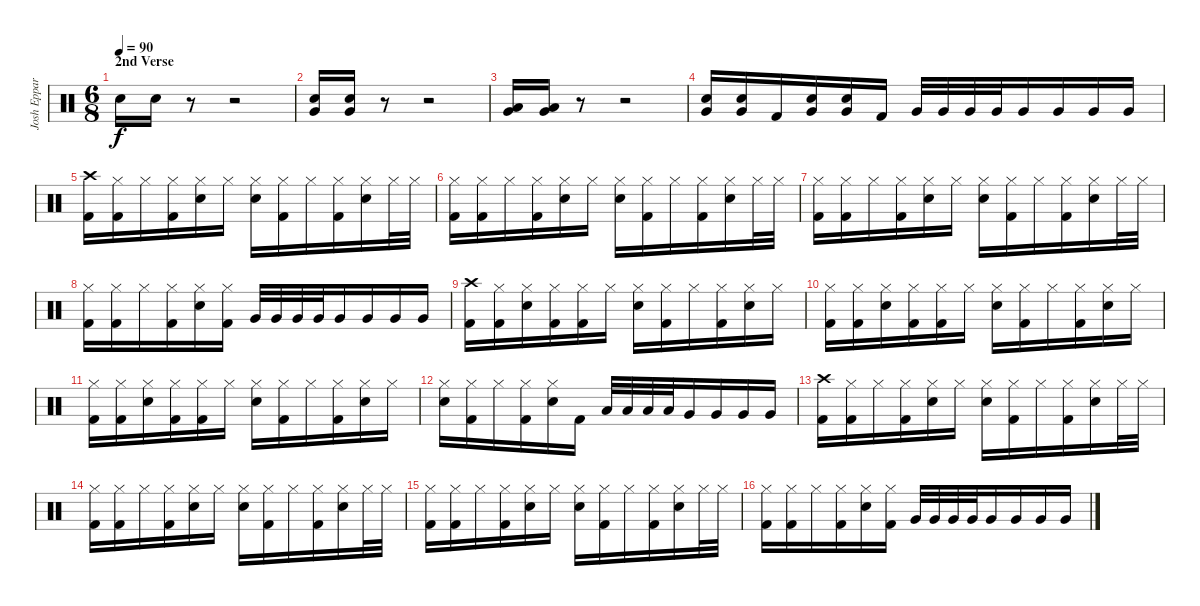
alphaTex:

\track ("Josh Eppard" "Josh Eppar") {instrument percussion}
\staff {score}
\articulation defaults
\ts (6 8)
\section ("" "2nd Verse")
\tempo 90
\clef neutral
\ks c "Electric Snare (hit)".16{dy f} "Electric Snare (hit)".16
r.8 r.2 |
("Very Low Tom (hit)" "Electric Snare (hit)").16 ("Very Low Tom (hit)" "Electric Snare (hit)").16 r.8 r.2 |
("Very Low Tom (hit)" "Low Tom (hit)").16 ("Very Low Tom (hit)" "Low Tom (hit)").16 r.8 r.2 |
("Very Low Tom (hit)" "Electric Snare (hit)").16 ("Very Low Tom (hit)" "Electric Snare (hit)").16 "Kick (hit) 2".16 ("Very Low Tom (hit)" "Electric Snare (hit)").16 ("Very Low Tom (hit)" "Electric Snare (hit)").16 "Kick (hit) 2".16 "Very Low Tom (hit)".32 "Very Low Tom (hit)".32 "Very Low Tom (hit)".32 "Very Low Tom (hit)".32 "Very Low Tom (hit)".16 "Very Low Tom (hit)".16 "Very Low Tom (hit)".16 "Very Low Tom (hit)".16 |
("Crash high (hit)" "Kick (hit) 2").16 ("Hi-Hat (closed)" "Kick (hit) 2").16 "Hi-Hat (closed)".16 ("Hi-Hat (closed)" "Kick (hit) 2").16 ("Hi-Hat (closed)" "Electric Snare (hit)").16 "Hi-Hat (closed)".16 ("Hi-Hat (closed)" "Electric Snare (hit)").16 ("Hi-Hat (closed)" "Kick (hit) 2").16 "Hi-Hat (closed)".16 ("Hi-Hat (closed)" "Kick (hit) 2").16 ("Hi-Hat (closed)" "Electric Snare (hit)").16 "Hi-Hat (closed)".32 "Hi-Hat (closed)".32 |
("Hi-Hat (closed)" "Kick (hit) 2").16 ("Hi-Hat (closed)" "Kick (hit) 2").16 "Hi-Hat (closed)".16 ("Hi-Hat (closed)" "Kick (hit) 2").16 ("Hi-Hat (closed)" "Electric Snare (hit)").16 "Hi-Hat (closed)".16 ("Hi-Hat (closed)" "Electric Snare (hit)").16 ("Hi-Hat (closed)" "Kick (hit) 2").16 "Hi-Hat (closed)".16 ("Hi-Hat (closed)" "Kick (hit) 2").16 ("Hi-Hat (closed)" "Electric Snare (hit)").16 "Hi-Hat (closed)".32 "Hi-Hat (closed)".32 |
("Hi-Hat (closed)" "Kick (hit) 2").16 ("Hi-Hat (closed)" "Kick (hit) 2").16 "Hi-Hat (closed)".16 ("Hi-Hat (closed)" "Kick (hit) 2").16 ("Hi-Hat (closed)" "Electric Snare (hit)").16 "Hi-Hat (closed)".16 ("Hi-Hat (closed)" "Electric Snare (hit)").16 ("Hi-Hat (closed)" "Kick (hit) 2").16 "Hi-Hat (closed)".16 ("Hi-Hat (closed)" "Kick (hit) 2").16 ("Hi-Hat (closed)" "Electric Snare (hit)").16 "Hi-Hat (closed)".32 "Hi-Hat (closed)".32 |
("Hi-Hat (closed)" "Kick (hit) 2").16 ("Hi-Hat (closed)" "Kick (hit) 2").16 "Hi-Hat (closed)".16 ("Hi-Hat (closed)" "Kick (hit) 2").16 ("Hi-Hat (closed)" "Electric Snare (hit)").16 ("Hi-Hat (closed)" "Kick (hit) 2").16 "Very Low Tom (hit)".32 "Very Low Tom (hit)".32 "Very Low Tom (hit)".32 "Very Low Tom (hit)".32 "Very Low Tom (hit)".16 "Very Low Tom (hit)".16 "Very Low Tom (hit)".16 "Very Low Tom (hit)".16 |
("Crash high (hit)" "Kick (hit) 2").16 ("Hi-Hat (closed)" "Kick (hit) 2").16 ("Hi-Hat (closed)" "Electric Snare (hit)").16 ("Hi-Hat (closed)" "Kick (hit) 2").16 ("Hi-Hat (closed)" "Kick (hit) 2").16 "Hi-Hat (closed)".16 ("Hi-Hat (closed)" "Electric Snare (hit)").16 ("Hi-Hat (closed)" "Kick (hit) 2").16 "Hi-Hat (closed)".16 ("Hi-Hat (closed)" "Kick (hit) 2").16 ("Hi-Hat (closed)" "Electric Snare (hit)").16 "Hi-Hat (closed)".16 |
("Hi-Hat (closed)" "Kick (hit) 2").16 ("Hi-Hat (closed)" "Kick (hit) 2").16 ("Hi-Hat (closed)" "Electric Snare (hit)").16 ("Hi-Hat (closed)" "Kick (hit) 2").16 ("Hi-Hat (closed)" "Kick (hit) 2").16 "Hi-Hat (closed)".16 ("Hi-Hat (closed)" "Electric Snare (hit)").16 ("Hi-Hat (closed)" "Kick (hit) 2").16 "Hi-Hat (closed)".16 ("Hi-Hat (closed)" "Kick (hit) 2").16 ("Hi-Hat (closed)" "Electric Snare (hit)").16 "Hi-Hat (closed)".16 |
("Hi-Hat (closed)" "Kick (hit) 2").16 ("Hi-Hat (closed)" "Kick (hit) 2").16 ("Hi-Hat (closed)" "Electric Snare (hit)").16 ("Hi-Hat (closed)" "Kick (hit) 2").16 ("Hi-Hat (closed)" "Kick (hit) 2").16 "Hi-Hat (closed)".16 ("Hi-Hat (closed)" "Electric Snare (hit)").16 ("Hi-Hat (closed)" "Kick (hit) 2").16 "Hi-Hat (closed)".16 ("Hi-Hat (closed)" "Kick (hit) 2").16 ("Hi-Hat (closed)" "Electric Snare (hit)").16 "Hi-Hat (closed)".16 |
("Hi-Hat (closed)" "Electric Snare (hit)").16 ("Hi-Hat (closed)" "Kick (hit) 2").16 "Hi-Hat (closed)".16 ("Hi-Hat (closed)" "Kick (hit) 2").16 ("Hi-Hat (closed)" "Electric Snare (hit)").16 "Kick (hit) 2".16 "Low Tom (hit)".32 "Low Tom (hit)".32 "Low Tom (hit)".32 "Low Tom (hit)".32 "Very Low Tom (hit)".16 "Very Low Tom (hit)".16 "Very Low Tom (hit)".16 "Very Low Tom (hit)".16 |
("Crash high (hit)" "Kick (hit) 2").16 ("Hi-Hat (closed)" "Kick (hit) 2").16 "Hi-Hat (closed)".16 ("Hi-Hat (closed)" "Kick (hit) 2").16 ("Hi-Hat (closed)" "Electric Snare (hit)").16 "Hi-Hat (closed)".16 ("Hi-Hat (closed)" "Electric Snare (hit)").16 ("Hi-Hat (closed)" "Kick (hit) 2").16 "Hi-Hat (closed)".16 ("Hi-Hat (closed)" "Kick (hit) 2").16 ("Hi-Hat (closed)" "Electric Snare (hit)").16 "Hi-Hat (closed)".32 "Hi-Hat (closed)".32 |
("Hi-Hat (closed)" "Kick (hit) 2").16 ("Hi-Hat (closed)" "Kick (hit) 2").16 "Hi-Hat (closed)".16 ("Hi-Hat (closed)" "Kick (hit) 2").16 ("Hi-Hat (closed)" "Electric Snare (hit)").16 "Hi-Hat (closed)".16 ("Hi-Hat (closed)" "Electric Snare (hit)").16 ("Hi-Hat (closed)" "Kick (hit) 2").16 "Hi-Hat (closed)".16 ("Hi-Hat (closed)" "Kick (hit) 2").16 ("Hi-Hat (closed)" "Electric Snare (hit)").16 "Hi-Hat (closed)".32 "Hi-Hat (closed)".32 |
("Hi-Hat (closed)" "Kick (hit) 2").16 ("Hi-Hat (closed)" "Kick (hit) 2").16 "Hi-Hat (closed)".16 ("Hi-Hat (closed)" "Kick (hit) 2").16 ("Hi-Hat (closed)" "Electric Snare (hit)").16 "Hi-Hat (closed)".16 ("Hi-Hat (closed)" "Electric Snare (hit)").16 ("Hi-Hat (closed)" "Kick (hit) 2").16 "Hi-Hat (closed)".16 ("Hi-Hat (closed)" "Kick (hit) 2").16 ("Hi-Hat (closed)" "Electric Snare (hit)").16 "Hi-Hat (closed)".32 "Hi-Hat (closed)".32 |
("Hi-Hat (closed)" "Kick (hit) 2").16 ("Hi-Hat (closed)" "Kick (hit) 2").16 "Hi-Hat (closed)".16 ("Hi-Hat (closed)" "Kick (hit) 2").16 ("Hi-Hat (closed)" "Electric Snare (hit)").16 ("Hi-Hat (closed)" "Kick (hit) 2").16 "Very Low Tom (hit)".32 "Very Low Tom (hit)".32 "Very Low Tom (hit)".32 "Very Low Tom (hit)".32 "Very Low Tom (hit)".16 "Very Low Tom (hit)".16 "Very Low Tom (hit)".16 "Very Low Tom (hit)".16
